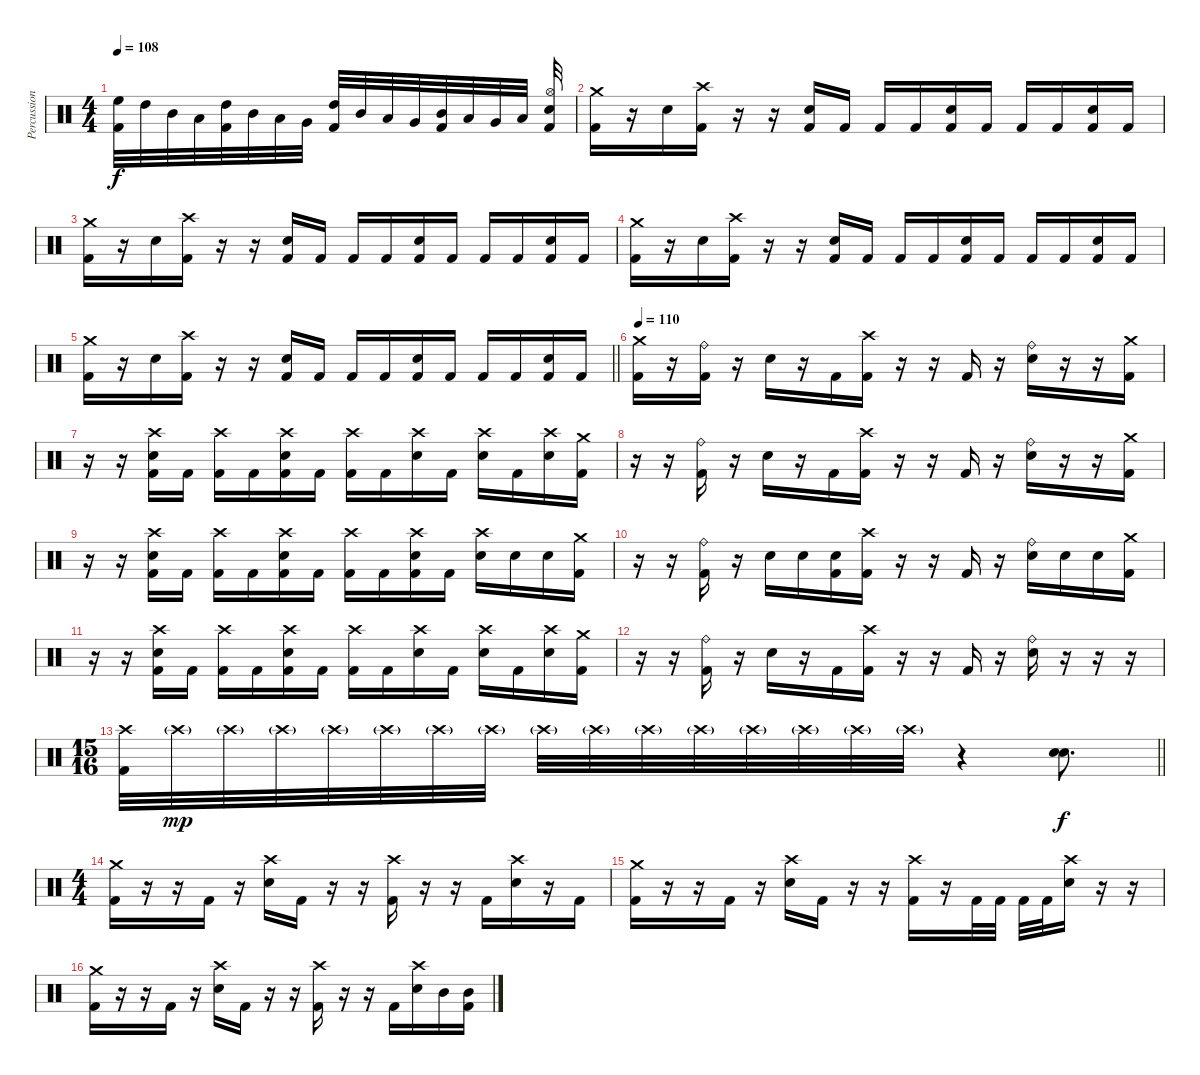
\track ("Percussion (Moose)" "Percussion") {instrument percussion}
\staff {score}
\articulation defaults
\ts (4 4)
\tempo 108
\clef neutral
\ks c
("High Floor Tom (hit)" "Kick (hit) 2").32{dy f} "High Tom (hit)".32 "Mid Tom (hit)".32 "Low Tom (hit)".32 ("High Tom (hit)" "Kick (hit) 2").32 "Mid Tom (hit)".32 "Low Tom (hit)".32 "Very Low Tom (hit)".32 ("High Tom (hit)" "Kick (hit) 2").32 "Mid Tom (hit)".32 "Low Tom (hit)".32 "Very Low Tom (hit)".32 ("Mid Tom (hit)" "Kick (hit) 2").32 "Low Tom (hit)".32 "Very Low Tom (hit)".32 "Low Floor Tom (hit)".32 ("Hi-Hat (open)" "Electric Snare (hit)" "Kick (hit) 2").32 |
("Crash medium (hit)" "Kick (hit) 2").16 r.16 "Electric Snare (hit)".16 ("Crash high (hit)" "Kick (hit) 2").16 r.16 r.16 ("Electric Snare (hit)" "Kick (hit) 2").16 "Kick (hit) 2".16 "Kick (hit) 2".16 "Kick (hit) 2".16 ("Electric Snare (hit)" "Kick (hit) 2").16 "Kick (hit) 2".16 "Kick (hit) 2".16 "Kick (hit) 2".16 ("Electric Snare (hit)" "Kick (hit) 2").16 "Kick (hit) 2".16 |
("Crash medium (hit)" "Kick (hit) 2").16 r.16 "Electric Snare (hit)".16 ("Crash high (hit)" "Kick (hit) 2").16 r.16 r.16 ("Electric Snare (hit)" "Kick (hit) 2").16 "Kick (hit) 2".16 "Kick (hit) 2".16 "Kick (hit) 2".16 ("Electric Snare (hit)" "Kick (hit) 2").16 "Kick (hit) 2".16 "Kick (hit) 2".16 "Kick (hit) 2".16 ("Electric Snare (hit)" "Kick (hit) 2").16 "Kick (hit) 2".16 |
("Crash medium (hit)" "Kick (hit) 2").16 r.16 "Electric Snare (hit)".16 ("Crash high (hit)" "Kick (hit) 2").16 r.16 r.16 ("Electric Snare (hit)" "Kick (hit) 2").16 "Kick (hit) 2".16 "Kick (hit) 2".16 "Kick (hit) 2".16 ("Electric Snare (hit)" "Kick (hit) 2").16 "Kick (hit) 2".16 "Kick (hit) 2".16 "Kick (hit) 2".16 ("Electric Snare (hit)" "Kick (hit) 2").16 "Kick (hit) 2".16 |
\barLineRight lightlight
("Crash medium (hit)" "Kick (hit) 2").16 r.16 "Electric Snare (hit)".16 ("Crash high (hit)" "Kick (hit) 2").16 r.16 r.16 ("Electric Snare (hit)" "Kick (hit) 2").16 "Kick (hit) 2".16 "Kick (hit) 2".16 "Kick (hit) 2".16 ("Electric Snare (hit)" "Kick (hit) 2").16 "Kick (hit) 2".16 "Kick (hit) 2".16 "Kick (hit) 2".16 ("Electric Snare (hit)" "Kick (hit) 2").16 "Kick (hit) 2".16 |
\tempo 110
("Crash medium (hit)" "Kick (hit) 2").16 r.16 ("Ride (bell)" "Kick (hit) 2").16 r.16 "Electric Snare (hit)".16 r.16 "Kick (hit) 2".16 ("Crash high (hit)" "Kick (hit) 2").16 r.16 r.16 "Kick (hit) 2".16 r.16 ("Ride (bell)" "Electric Snare (hit)").16 r.16 r.16 ("Crash medium (hit)" "Kick (hit) 2").16 |
r.16 r.16 ("Crash high (hit)" "Electric Snare (hit)" "Kick (hit) 2").16 "Kick (hit) 2".16 ("Crash high (hit)" "Kick (hit) 2").16 "Kick (hit) 2".16 ("Crash high (hit)" "Electric Snare (hit)" "Kick (hit) 2").16 "Kick (hit) 2".16 ("Crash high (hit)" "Kick (hit) 2").16 "Kick (hit) 2".16 ("Crash high (hit)" "Electric Snare (hit)").16 "Kick (hit) 2".16 ("Crash high (hit)" "Electric Snare (hit)").16 "Kick (hit) 2".16 ("Crash high (hit)" "Electric Snare (hit)").16 ("Crash medium (hit)" "Kick (hit) 2").16 |
r.16 r.16 ("Ride (bell)" "Kick (hit) 2").16 r.16 "Electric Snare (hit)".16 r.16 "Kick (hit) 2".16 ("Crash high (hit)" "Kick (hit) 2").16 r.16 r.16 "Kick (hit) 2".16 r.16 ("Ride (bell)" "Electric Snare (hit)").16 r.16 r.16 ("Crash medium (hit)" "Kick (hit) 2").16 |
r.16 r.16 ("Crash high (hit)" "Electric Snare (hit)" "Kick (hit) 2").16 "Kick (hit) 2".16 ("Crash high (hit)" "Kick (hit) 2").16 "Kick (hit) 2".16 ("Crash high (hit)" "Electric Snare (hit)" "Kick (hit) 2").16 "Kick (hit) 2".16 ("Crash high (hit)" "Kick (hit) 2").16 "Kick (hit) 2".16 ("Crash high (hit)" "Electric Snare (hit)" "Kick (hit) 2").16 "Kick (hit) 2".16 ("Crash high (hit)" "Electric Snare (hit)").16 "Electric Snare (hit)".16 "Electric Snare (hit)".16 ("Crash medium (hit)" "Kick (hit) 2").16 |
r.16 r.16 ("Ride (bell)" "Kick (hit) 2").16 r.16 "Electric Snare (hit)".16 "Electric Snare (hit)".16 ("Electric Snare (hit)" "Kick (hit) 2").16 ("Crash high (hit)" "Kick (hit) 2").16 r.16 r.16 "Kick (hit) 2".16 r.16 ("Ride (bell)" "Electric Snare (hit)").16 "Electric Snare (hit)".16 "Electric Snare (hit)".16 ("Crash medium (hit)" "Kick (hit) 2").16 |
r.16 r.16 ("Crash high (hit)" "Electric Snare (hit)" "Kick (hit) 2").16 "Kick (hit) 2".16 ("Crash high (hit)" "Kick (hit) 2").16 "Kick (hit) 2".16 ("Crash high (hit)" "Electric Snare (hit)" "Kick (hit) 2").16 "Kick (hit) 2".16 ("Crash high (hit)" "Kick (hit) 2").16 "Kick (hit) 2".16 ("Crash high (hit)" "Electric Snare (hit)").16 "Kick (hit) 2".16 ("Crash high (hit)" "Electric Snare (hit)").16 "Kick (hit) 2".16 ("Crash high (hit)" "Electric Snare (hit)").16 ("Crash medium (hit)" "Kick (hit) 2").16 |
r.16 r.16 ("Ride (bell)" "Kick (hit) 2").16 r.16 "Electric Snare (hit)".16 r.16 "Kick (hit) 2".16 ("Crash high (hit)" "Kick (hit) 2").16 r.16 r.16 "Kick (hit) 2".16 r.16 ("Ride (bell)" "Electric Snare (hit)").16 r.16 r.16 r.16 |
\ts (15 16)
\barLineRight lightlight
("Crash high (hit)" "Kick (hit) 2").32{volume 16} "Crash high (hit)"{g}.32{dy mp} "Crash high (hit)"{g}.32 "Crash high (hit)"{g}.32 "Crash high (hit)"{g}.32 "Crash high (hit)"{g}.32 "Crash high (hit)"{g}.32 "Crash high (hit)"{g}.32 "Crash high (hit)"{g}.32 "Crash high (hit)"{g}.32 "Crash high (hit)"{g}.32 "Crash high (hit)"{g}.32 "Crash high (hit)"{g}.32 "Crash high (hit)"{g}.32 "Crash high (hit)"{g}.32 "Crash high (hit)"{g}.32 r.4 ("Electric Snare (hit)" "Electric Snare (hit)").8{d dy f} |
\ts (4 4)
("Crash medium (hit)" "Kick (hit) 2").16 r.16 r.16 "Kick (hit) 2".16 r.16 ("Crash high (hit)" "Electric Snare (hit)").16 "Kick (hit) 2".16 r.16 r.16 ("Crash high (hit)" "Kick (hit) 2").16 r.16 r.16 "Kick (hit) 2".16 ("Crash high (hit)" "Electric Snare (hit)").16 r.16 "Kick (hit) 2".16 |
("Crash medium (hit)" "Kick (hit) 2").16 r.16 r.16 "Kick (hit) 2".16 r.16 ("Crash high (hit)" "Electric Snare (hit)").16 "Kick (hit) 2".16 r.16 r.16 ("Crash high (hit)" "Kick (hit) 2").16 r.16 "Kick (hit) 2".32 "Kick (hit) 2".32 "Kick (hit) 2".32 "Kick (hit) 2".32 ("Crash high (hit)" "Electric Snare (hit)").16 r.16 r.16 |
("Crash medium (hit)" "Kick (hit) 2").16 r.16 r.16 "Kick (hit) 2".16 r.16 ("Crash high (hit)" "Electric Snare (hit)").16 "Kick (hit) 2".16 r.16 r.16 ("Crash high (hit)" "Kick (hit) 2").16 r.16 r.16 "Kick (hit) 2".16 ("Crash high (hit)" "Electric Snare (hit)").16 "Mid Tom (hit)".16 ("Mid Tom (hit)" "Kick (hit) 2").16
